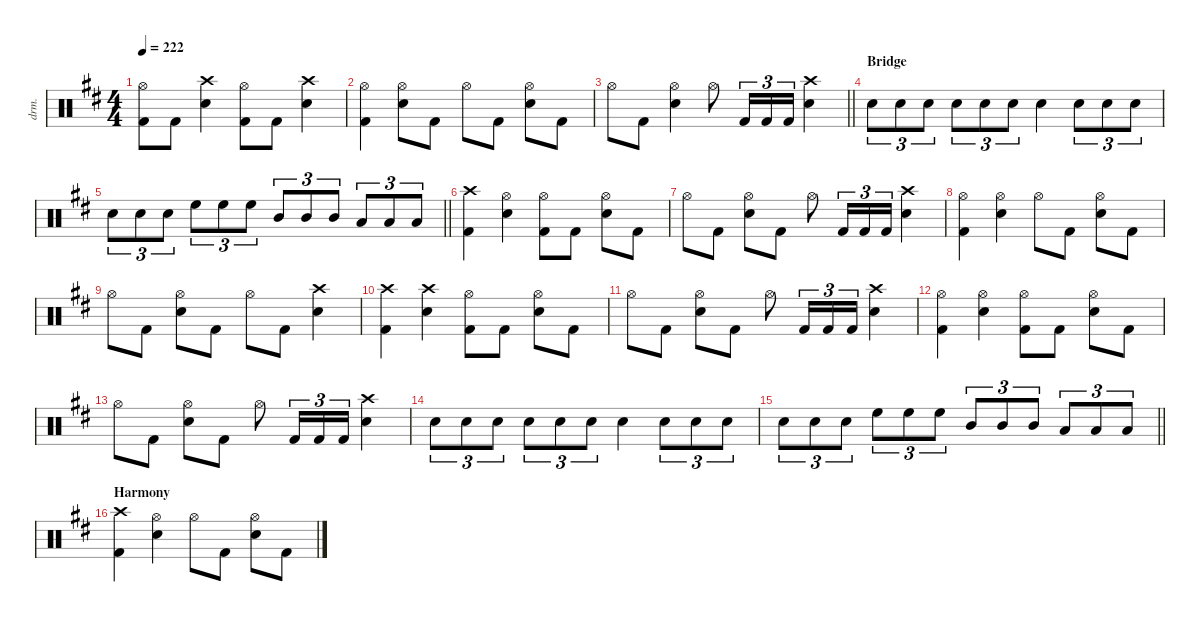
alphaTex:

\defaultSystemsLayout 4
\hideDynamics
\bracketExtendMode nobrackets
\otherSystemsTrackNameOrientation horizontal
\track ("Lars Ulrich" "drm.") {defaultSystemsLayout 4 instrument percussion}
\staff {score}
\articulation defaults
\ts (4 4)
\tempo 222
\clef neutral
\ks bminor
("Hi-Hat (open)"{acc forcenatural} "Kick (hit) 2"{acc forcenatural}).8{dy f beam Down} "Kick (hit) 2"{acc forcenatural}.8{beam Down} ("Crash high (hit)"{acc forcenatural} "Snare (hit) 2"{acc forcenatural}).4{beam Down} ("Hi-Hat (open)"{acc forcenatural} "Kick (hit) 2"{acc forcenatural}).8{beam Down} "Kick (hit) 2"{acc forcenatural}.8{beam Down} ("Crash high (hit)"{acc forcenatural} "Snare (hit) 2"{acc forcenatural}).4{beam Down} |
("Hi-Hat (open)"{acc forcenatural} "Kick (hit) 2"{acc forcenatural}).4{beam Down} ("Hi-Hat (open)"{acc forcenatural} "Snare (hit) 2"{acc forcenatural}).8{beam Down} "Kick (hit) 2"{acc forcenatural}.8{beam Down} "Hi-Hat (open)"{acc forcenatural}.8{beam Down} "Kick (hit) 2"{acc forcenatural}.8{beam Down} ("Hi-Hat (open)"{acc forcenatural} "Snare (hit) 2"{acc forcenatural}).8{beam Down} "Kick (hit) 2"{acc forcenatural}.8{beam Down} |
\barLineRight lightlight "Hi-Hat (open)"{acc forcenatural}.8{beam Down} "Kick (hit) 2"{acc forcenatural}.8{beam Down}
("Hi-Hat (open)"{acc forcenatural} "Snare (hit) 2"{acc forcenatural}).4{beam Down} "Hi-Hat (open)"{acc forcenatural}.8{beam Down} "Kick (hit) 2"{acc forcenatural}.16{tu (3 2) beam Up} "Kick (hit) 2"{acc forcenatural}.16{tu (3 2) beam Up} "Kick (hit) 2"{acc forcenatural}.16{tu (3 2) beam Up} ("Crash high (hit)"{acc forcenatural} "Snare (hit) 2"{acc forcenatural}).4{beam Down} |
\section ("" "Bridge")
"Snare (hit) 2"{acc forcenatural}.8{tu (3 2) beam Down} "Snare (hit) 2"{acc forcenatural}.8{tu (3 2) beam Down} "Snare (hit) 2"{acc forcenatural}.8{tu (3 2) beam Down} "Snare (hit) 2"{acc forcenatural}.8{tu (3 2) beam Down} "Snare (hit) 2"{acc forcenatural}.8{tu (3 2) beam Down} "Snare (hit) 2"{acc forcenatural}.8{tu (3 2) beam Down} "Snare (hit) 2"{acc forcenatural}.4{beam Down} "Snare (hit) 2"{acc forcenatural}.8{tu (3 2) beam Down} "Snare (hit) 2"{acc forcenatural}.8{tu (3 2) beam Down} "Snare (hit) 2"{acc forcenatural}.8{tu (3 2) beam Down} |
\barLineRight lightlight "Snare (hit) 2"{acc forcenatural}.8{tu (3 2) beam Down} "Snare (hit) 2"{acc forcenatural}.8{tu (3 2) beam Down} "Snare (hit) 2"{acc forcenatural}.8{tu (3 2) beam Down} "High Floor Tom (hit)"{acc forcenatural}.8{tu (3 2) dy fff beam Down} "High Floor Tom (hit)"{acc forcenatural}.8{tu (3 2) beam Down} "High Floor Tom (hit)"{acc forcenatural}.8{tu (3 2) beam Down} "Mid Tom (hit)"{acc forcenatural}.8{tu (3 2) beam Up} "Mid Tom (hit)"{acc forcenatural}.8{tu (3 2) beam Up} "Mid Tom (hit)"{acc forcenatural}.8{tu (3 2) beam Up} "Low Tom (hit)"{acc forcenatural}.8{tu (3 2) beam Up} "Low Tom (hit)"{acc forcenatural}.8{tu (3 2) beam Up} "Low Tom (hit)"{acc forcenatural}.8{tu (3 2) beam Up}
|
("Crash high (hit)"{acc forcenatural} "Kick (hit) 2"{acc forcenatural}).4{dy f beam Down} ("Hi-Hat (open)"{acc forcenatural} "Snare (hit) 2"{acc forcenatural}).4{beam Down} ("Hi-Hat (open)"{acc forcenatural} "Kick (hit) 2"{acc forcenatural}).8{beam Down} "Kick (hit) 2"{acc forcenatural}.8{beam Down} ("Hi-Hat (open)"{acc forcenatural} "Snare (hit) 2"{acc forcenatural}).8{beam Down} "Kick (hit) 2"{acc forcenatural}.8{beam Down} |
"Hi-Hat (open)"{acc forcenatural}.8{beam Down} "Kick (hit) 2"{acc forcenatural}.8{beam Down} ("Hi-Hat (open)"{acc forcenatural} "Snare (hit) 2"{acc forcenatural}).8{beam Down} "Kick (hit) 2"{acc forcenatural}.8{beam Down} "Hi-Hat (open)"{acc forcenatural}.8{beam Down} "Kick (hit) 2"{acc forcenatural}.16{tu (3 2) beam Up} "Kick (hit) 2"{acc forcenatural}.16{tu (3 2) beam Up} "Kick (hit) 2"{acc forcenatural}.16{tu (3 2) beam Up} ("Crash high (hit)"{acc forcenatural} "Snare (hit) 2"{acc forcenatural}).4{beam Down} |
("Hi-Hat (open)"{acc forcenatural} "Kick (hit) 2"{acc forcenatural}).4{beam Down} ("Hi-Hat (open)"{acc forcenatural} "Snare (hit) 2"{acc forcenatural}).4{beam Down} "Hi-Hat (open)"{acc forcenatural}.8{beam Down} "Kick (hit) 2"{acc forcenatural}.8{beam Down} ("Hi-Hat (open)"{acc forcenatural} "Snare (hit) 2"{acc forcenatural}).8{beam Down} "Kick (hit) 2"{acc forcenatural}.8{beam Down} |
"Hi-Hat (open)"{acc forcenatural}.8{beam Down} "Kick (hit) 2"{acc forcenatural}.8{beam Down} ("Hi-Hat (open)"{acc forcenatural} "Snare (hit) 2"{acc forcenatural}).8{beam Down} "Kick (hit) 2"{acc forcenatural}.8{beam Down} "Hi-Hat (open)"{acc forcenatural}.8{beam Down} "Kick (hit) 2"{acc forcenatural}.8{beam Down} ("Crash high (hit)"{acc forcenatural} "Snare (hit) 2"{acc forcenatural}).4{beam Down} |
("Crash high (hit)"{acc forcenatural} "Kick (hit) 2"{acc forcenatural}).4{beam Down} ("Crash high (hit)"{acc forcenatural} "Snare (hit) 2"{acc forcenatural}).4{beam Down} ("Hi-Hat (open)"{acc forcenatural} "Kick (hit) 2"{acc forcenatural}).8{beam Down} "Kick (hit) 2"{acc forcenatural}.8{beam Down} ("Hi-Hat (open)"{acc forcenatural} "Snare (hit) 2"{acc forcenatural}).8{beam Down} "Kick (hit) 2"{acc forcenatural}.8{beam Down} |
"Hi-Hat (open)"{acc forcenatural}.8{beam Down} "Kick (hit) 2"{acc forcenatural}.8{beam Down} ("Hi-Hat (open)"{acc forcenatural} "Snare (hit) 2"{acc forcenatural}).8{beam Down} "Kick (hit) 2"{acc forcenatural}.8{beam Down} "Hi-Hat (open)"{acc forcenatural}.8{beam Down} "Kick (hit) 2"{acc forcenatural}.16{tu (3 2) beam Up} "Kick (hit) 2"{acc forcenatural}.16{tu (3 2) beam Up} "Kick (hit) 2"{acc forcenatural}.16{tu (3 2) beam Up} ("Crash high (hit)"{acc forcenatural} "Snare (hit) 2"{acc forcenatural}).4{beam Down} |
("Hi-Hat (open)"{acc forcenatural} "Kick (hit) 2"{acc forcenatural}).4{beam Down} ("Hi-Hat (open)"{acc forcenatural} "Snare (hit) 2"{acc forcenatural}).4{beam Down} ("Hi-Hat (open)"{acc forcenatural} "Kick (hit) 2"{acc forcenatural}).8{beam Down} "Kick (hit) 2"{acc forcenatural}.8{beam Down} ("Hi-Hat (open)"{acc forcenatural} "Snare (hit) 2"{acc forcenatural}).8{beam Down} "Kick (hit) 2"{acc forcenatural}.8{beam Down} |
"Hi-Hat (open)"{acc forcenatural}.8{beam Down} "Kick (hit) 2"{acc forcenatural}.8{beam Down} ("Hi-Hat (open)"{acc forcenatural} "Snare (hit) 2"{acc forcenatural}).8{beam Down} "Kick (hit) 2"{acc forcenatural}.8{beam Down} "Hi-Hat (open)"{acc forcenatural}.8{beam Down} "Kick (hit) 2"{acc forcenatural}.16{tu (3 2) beam Up} "Kick (hit) 2"{acc forcenatural}.16{tu (3 2) beam Up} "Kick (hit) 2"{acc forcenatural}.16{tu (3 2) beam Up} ("Crash high (hit)"{acc forcenatural} "Snare (hit) 2"{acc forcenatural}).4{beam Down} |
"Snare (hit) 2"{acc forcenatural}.8{tu (3 2) beam Down} "Snare (hit) 2"{acc forcenatural}.8{tu (3 2) beam Down} "Snare (hit) 2"{acc forcenatural}.8{tu (3 2) beam Down} "Snare (hit) 2"{acc forcenatural}.8{tu (3 2) beam Down} "Snare (hit) 2"{acc forcenatural}.8{tu (3 2) beam Down} "Snare (hit) 2"{acc forcenatural}.8{tu (3 2) beam Down} "Snare (hit) 2"{acc forcenatural}.4{beam Down} "Snare (hit) 2"{acc forcenatural}.8{tu (3 2) beam Down} "Snare (hit) 2"{acc forcenatural}.8{tu (3 2) beam Down} "Snare (hit) 2"{acc forcenatural}.8{tu (3 2) beam Down} |
\barLineRight lightlight "Snare (hit) 2"{acc forcenatural}.8{tu (3 2) beam Down} "Snare (hit) 2"{acc forcenatural}.8{tu (3 2) beam Down} "Snare (hit) 2"{acc forcenatural}.8{tu (3 2) beam Down} "High Floor Tom (hit)"{acc forcenatural}.8{tu (3 2) dy fff beam Down} "High Floor Tom (hit)"{acc forcenatural}.8{tu (3 2) beam Down} "High Floor Tom (hit)"{acc forcenatural}.8{tu (3 2) beam Down} "Mid Tom (hit)"{acc forcenatural}.8{tu (3 2) beam Up} "Mid Tom (hit)"{acc forcenatural}.8{tu (3 2) beam Up} "Mid Tom (hit)"{acc forcenatural}.8{tu (3 2) beam Up} "Low Tom (hit)"{acc forcenatural}.8{tu (3 2) beam Up} "Low Tom (hit)"{acc forcenatural}.8{tu (3 2) beam Up} "Low Tom (hit)"{acc forcenatural}.8{tu (3 2) beam Up}
|
\section ("" "Harmony")
("Crash high (hit)"{acc forcenatural} "Kick (hit) 2"{acc forcenatural}).4{dy f beam Down} ("Hi-Hat (open)"{acc forcenatural} "Snare (hit) 2"{acc forcenatural}).4{beam Down} "Hi-Hat (open)"{acc forcenatural}.8{beam Down} "Kick (hit) 2"{acc forcenatural}.8{beam Down} ("Hi-Hat (open)"{acc forcenatural} "Snare (hit) 2"{acc forcenatural}).8{beam Down} "Kick (hit) 2"{acc forcenatural}.8{beam Down}
